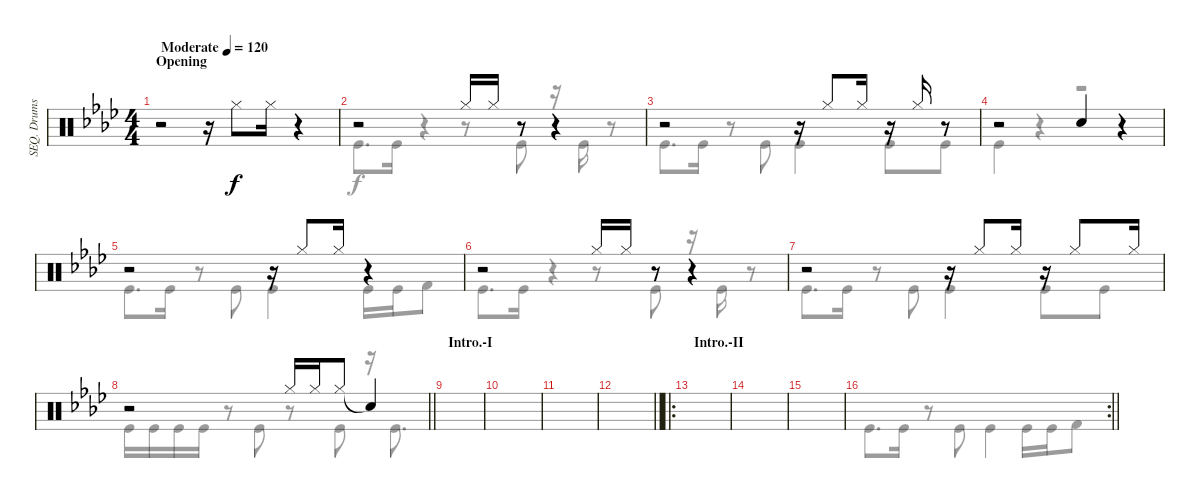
\track ("SEQ. Drums" "SEQ. Drums") {instrument percussion}
\staff {score}
\articulation defaults
\voice
\ts (4 4)
\section ("" "Opening")
\tempo (120 "Moderate")
\clef neutral
\ks ab
r.2{dy f} r.16 "Hi-Hat (closed)".8 "Hi-Hat (closed)".16 r.4 |
r.2 "Hi-Hat (closed)".16 "Hi-Hat (closed)".16 r.8 r.4 |
r.2 r.16 "Hi-Hat (closed)".8 "Hi-Hat (closed)".16 r.16 "Hi-Hat (closed)".16 r.8 |
r.2 "Electric Snare (hit)".4 r.4 |
r.2 r.16 "Hi-Hat (closed)".8 "Hi-Hat (closed)".16 r.4 |
r.2 "Hi-Hat (closed)".16 "Hi-Hat (closed)".16 r.8 r.4 |
r.2 r.16 "Hi-Hat (closed)".8 "Hi-Hat (closed)".16 r.16 "Hi-Hat (closed)".8 "Hi-Hat (closed)".16 |
\barLineRight lightlight
r.2 "Hi-Hat (closed)".16 "Hi-Hat (closed)".16 "Hi-Hat (closed)".8 "Snare (hit)"{t}.4 |
\section ("" "Intro.-I")
|
|
|
\barLineRight lightlight
|
\ro
\section ("" "Intro.-II")
|
|
|
\rc 2
\barLineRight lightlight
\voice
\clef neutral
\ottava regular
\simile none
\ks ab "Kick (hit)".8{d dy f} "Kick (hit)".16
r.8 "Kick (hit)".8 "Kick (hit)".4 "Kick (hit)".16 "Kick (hit)".16 "Kick (hit) 2".8 |
"Kick (hit)".8{d} "Kick (hit)".16 r.4 r.8 "Kick (hit)".8 r.16 "Kick (hit)".16 r.8 |
"Kick (hit)".8{d} "Kick (hit)".16 r.8 "Kick (hit)".8 "Kick (hit)".4 "Kick (hit)".8 "Kick (hit)".8 |
"Kick (hit)".4 r.4 r.2 |
"Kick (hit)".8{d} "Kick (hit)".16 r.8 "Kick (hit)".8 "Kick (hit)".4 "Kick (hit)".16 "Kick (hit)".16 "Kick (hit) 2".8 |
"Kick (hit)".8{d} "Kick (hit)".16 r.4 r.8 "Kick (hit)".8 r.16 "Kick (hit)".16 r.8 |
"Kick (hit)".8{d} "Kick (hit)".16 r.8 "Kick (hit)".8 "Kick (hit)".4 "Kick (hit)".8 "Kick (hit)".8 |
\barLineRight lightlight "Kick (hit)".16 "Kick (hit)".16 "Kick (hit)".16 "Kick (hit)".16
r.8 "Kick (hit)".8 r.8 "Kick (hit)".8 r.16 "Kick (hit)".8{d} |
|
|
|
\barLineRight lightlight
|
|
|
|
\barLineRight lightlight
